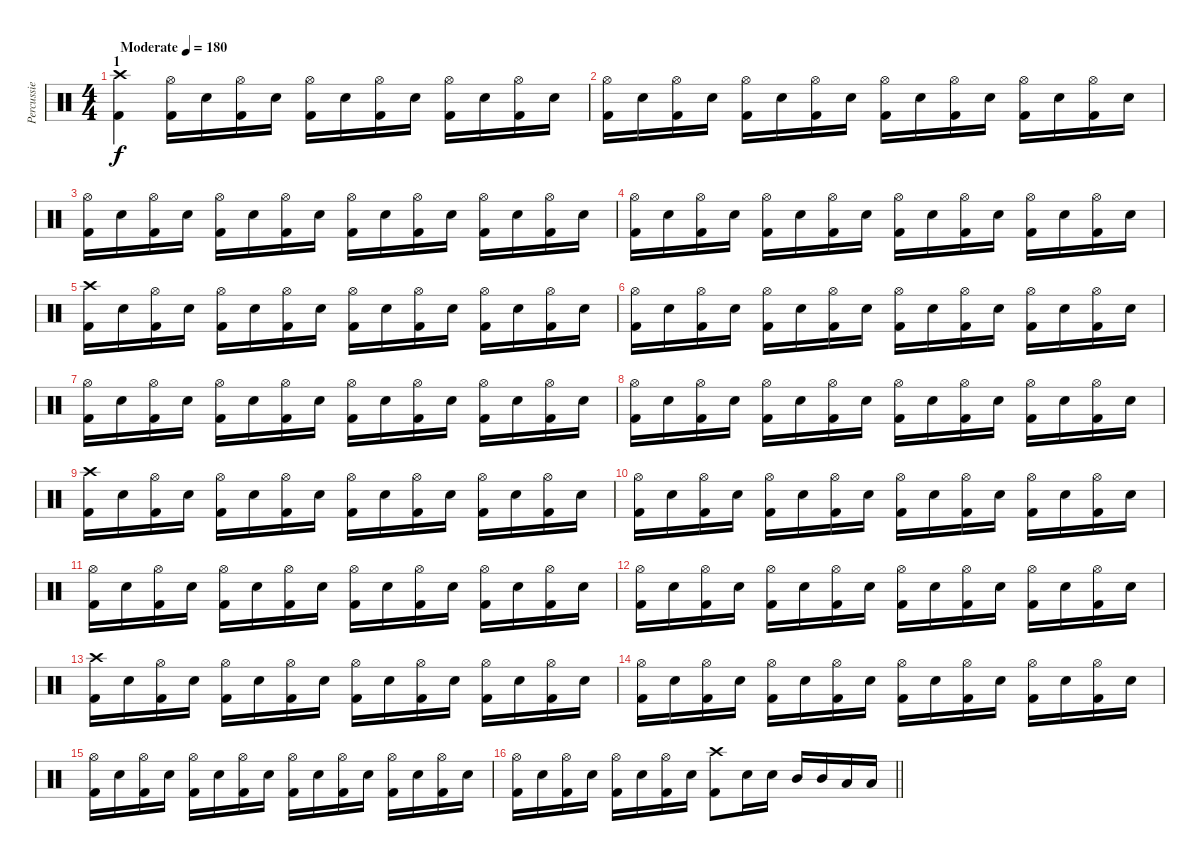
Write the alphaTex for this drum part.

\track ("Percussie" "Percussie") {instrument percussion}
\staff {score}
\articulation defaults
\ts (4 4)
\section ("" "1")
\tempo (180 "Moderate")
\clef neutral
\ks c
("Crash high (hit)" "Kick (hit) 2").4{dy f} ("Hi-Hat (open)" "Kick (hit) 2").16 "Snare (hit) 2".16 ("Hi-Hat (open)" "Kick (hit) 2").16 "Snare (hit) 2".16 ("Hi-Hat (open)" "Kick (hit) 2").16 "Snare (hit) 2".16 ("Hi-Hat (open)" "Kick (hit) 2").16 "Snare (hit) 2".16 ("Hi-Hat (open)" "Kick (hit) 2").16 "Snare (hit) 2".16 ("Hi-Hat (open)" "Kick (hit) 2").16 "Snare (hit) 2".16 |
("Hi-Hat (open)" "Kick (hit) 2").16 "Snare (hit) 2".16 ("Hi-Hat (open)" "Kick (hit) 2").16 "Snare (hit) 2".16 ("Hi-Hat (open)" "Kick (hit) 2").16 "Snare (hit) 2".16 ("Hi-Hat (open)" "Kick (hit) 2").16 "Snare (hit) 2".16 ("Hi-Hat (open)" "Kick (hit) 2").16 "Snare (hit) 2".16 ("Hi-Hat (open)" "Kick (hit) 2").16 "Snare (hit) 2".16 ("Hi-Hat (open)" "Kick (hit) 2").16 "Snare (hit) 2".16 ("Hi-Hat (open)" "Kick (hit) 2").16 "Snare (hit) 2".16 |
("Hi-Hat (open)" "Kick (hit) 2").16 "Snare (hit) 2".16 ("Hi-Hat (open)" "Kick (hit) 2").16 "Snare (hit) 2".16 ("Hi-Hat (open)" "Kick (hit) 2").16 "Snare (hit) 2".16 ("Hi-Hat (open)" "Kick (hit) 2").16 "Snare (hit) 2".16 ("Hi-Hat (open)" "Kick (hit) 2").16 "Snare (hit) 2".16 ("Hi-Hat (open)" "Kick (hit) 2").16 "Snare (hit) 2".16 ("Hi-Hat (open)" "Kick (hit) 2").16 "Snare (hit) 2".16 ("Hi-Hat (open)" "Kick (hit) 2").16 "Snare (hit) 2".16 |
("Hi-Hat (open)" "Kick (hit) 2").16 "Snare (hit) 2".16 ("Hi-Hat (open)" "Kick (hit) 2").16 "Snare (hit) 2".16 ("Hi-Hat (open)" "Kick (hit) 2").16 "Snare (hit) 2".16 ("Hi-Hat (open)" "Kick (hit) 2").16 "Snare (hit) 2".16 ("Hi-Hat (open)" "Kick (hit) 2").16 "Snare (hit) 2".16 ("Hi-Hat (open)" "Kick (hit) 2").16 "Snare (hit) 2".16 ("Hi-Hat (open)" "Kick (hit) 2").16 "Snare (hit) 2".16 ("Hi-Hat (open)" "Kick (hit) 2").16 "Snare (hit) 2".16 |
("Crash high (hit)" "Kick (hit) 2").16 "Snare (hit) 2".16 ("Hi-Hat (open)" "Kick (hit) 2").16 "Snare (hit) 2".16 ("Hi-Hat (open)" "Kick (hit) 2").16 "Snare (hit) 2".16 ("Hi-Hat (open)" "Kick (hit) 2").16 "Snare (hit) 2".16 ("Hi-Hat (open)" "Kick (hit) 2").16 "Snare (hit) 2".16 ("Hi-Hat (open)" "Kick (hit) 2").16 "Snare (hit) 2".16 ("Hi-Hat (open)" "Kick (hit) 2").16 "Snare (hit) 2".16 ("Hi-Hat (open)" "Kick (hit) 2").16 "Snare (hit) 2".16 |
("Hi-Hat (open)" "Kick (hit) 2").16 "Snare (hit) 2".16 ("Hi-Hat (open)" "Kick (hit) 2").16 "Snare (hit) 2".16 ("Hi-Hat (open)" "Kick (hit) 2").16 "Snare (hit) 2".16 ("Hi-Hat (open)" "Kick (hit) 2").16 "Snare (hit) 2".16 ("Hi-Hat (open)" "Kick (hit) 2").16 "Snare (hit) 2".16 ("Hi-Hat (open)" "Kick (hit) 2").16 "Snare (hit) 2".16 ("Hi-Hat (open)" "Kick (hit) 2").16 "Snare (hit) 2".16 ("Hi-Hat (open)" "Kick (hit) 2").16 "Snare (hit) 2".16 |
("Hi-Hat (open)" "Kick (hit) 2").16 "Snare (hit) 2".16 ("Hi-Hat (open)" "Kick (hit) 2").16 "Snare (hit) 2".16 ("Hi-Hat (open)" "Kick (hit) 2").16 "Snare (hit) 2".16 ("Hi-Hat (open)" "Kick (hit) 2").16 "Snare (hit) 2".16 ("Hi-Hat (open)" "Kick (hit) 2").16 "Snare (hit) 2".16 ("Hi-Hat (open)" "Kick (hit) 2").16 "Snare (hit) 2".16 ("Hi-Hat (open)" "Kick (hit) 2").16 "Snare (hit) 2".16 ("Hi-Hat (open)" "Kick (hit) 2").16 "Snare (hit) 2".16 |
("Hi-Hat (open)" "Kick (hit) 2").16 "Snare (hit) 2".16 ("Hi-Hat (open)" "Kick (hit) 2").16 "Snare (hit) 2".16 ("Hi-Hat (open)" "Kick (hit) 2").16 "Snare (hit) 2".16 ("Hi-Hat (open)" "Kick (hit) 2").16 "Snare (hit) 2".16 ("Hi-Hat (open)" "Kick (hit) 2").16 "Snare (hit) 2".16 ("Hi-Hat (open)" "Kick (hit) 2").16 "Snare (hit) 2".16 ("Hi-Hat (open)" "Kick (hit) 2").16 "Snare (hit) 2".16 ("Hi-Hat (open)" "Kick (hit) 2").16 "Snare (hit) 2".16 |
("Crash high (hit)" "Kick (hit) 2").16 "Snare (hit) 2".16 ("Hi-Hat (open)" "Kick (hit) 2").16 "Snare (hit) 2".16 ("Hi-Hat (open)" "Kick (hit) 2").16 "Snare (hit) 2".16 ("Hi-Hat (open)" "Kick (hit) 2").16 "Snare (hit) 2".16 ("Hi-Hat (open)" "Kick (hit) 2").16 "Snare (hit) 2".16 ("Hi-Hat (open)" "Kick (hit) 2").16 "Snare (hit) 2".16 ("Hi-Hat (open)" "Kick (hit) 2").16 "Snare (hit) 2".16 ("Hi-Hat (open)" "Kick (hit) 2").16 "Snare (hit) 2".16 |
("Hi-Hat (open)" "Kick (hit) 2").16 "Snare (hit) 2".16 ("Hi-Hat (open)" "Kick (hit) 2").16 "Snare (hit) 2".16 ("Hi-Hat (open)" "Kick (hit) 2").16 "Snare (hit) 2".16 ("Hi-Hat (open)" "Kick (hit) 2").16 "Snare (hit) 2".16 ("Hi-Hat (open)" "Kick (hit) 2").16 "Snare (hit) 2".16 ("Hi-Hat (open)" "Kick (hit) 2").16 "Snare (hit) 2".16 ("Hi-Hat (open)" "Kick (hit) 2").16 "Snare (hit) 2".16 ("Hi-Hat (open)" "Kick (hit) 2").16 "Snare (hit) 2".16 |
("Hi-Hat (open)" "Kick (hit) 2").16 "Snare (hit) 2".16 ("Hi-Hat (open)" "Kick (hit) 2").16 "Snare (hit) 2".16 ("Hi-Hat (open)" "Kick (hit) 2").16 "Snare (hit) 2".16 ("Hi-Hat (open)" "Kick (hit) 2").16 "Snare (hit) 2".16 ("Hi-Hat (open)" "Kick (hit) 2").16 "Snare (hit) 2".16 ("Hi-Hat (open)" "Kick (hit) 2").16 "Snare (hit) 2".16 ("Hi-Hat (open)" "Kick (hit) 2").16 "Snare (hit) 2".16 ("Hi-Hat (open)" "Kick (hit) 2").16 "Snare (hit) 2".16 |
("Hi-Hat (open)" "Kick (hit) 2").16 "Snare (hit) 2".16 ("Hi-Hat (open)" "Kick (hit) 2").16 "Snare (hit) 2".16 ("Hi-Hat (open)" "Kick (hit) 2").16 "Snare (hit) 2".16 ("Hi-Hat (open)" "Kick (hit) 2").16 "Snare (hit) 2".16 ("Hi-Hat (open)" "Kick (hit) 2").16 "Snare (hit) 2".16 ("Hi-Hat (open)" "Kick (hit) 2").16 "Snare (hit) 2".16 ("Hi-Hat (open)" "Kick (hit) 2").16 "Snare (hit) 2".16 ("Hi-Hat (open)" "Kick (hit) 2").16 "Snare (hit) 2".16 |
("Crash high (hit)" "Kick (hit) 2").16 "Snare (hit) 2".16 ("Hi-Hat (open)" "Kick (hit) 2").16 "Snare (hit) 2".16 ("Hi-Hat (open)" "Kick (hit) 2").16 "Snare (hit) 2".16 ("Hi-Hat (open)" "Kick (hit) 2").16 "Snare (hit) 2".16 ("Hi-Hat (open)" "Kick (hit) 2").16 "Snare (hit) 2".16 ("Hi-Hat (open)" "Kick (hit) 2").16 "Snare (hit) 2".16 ("Hi-Hat (open)" "Kick (hit) 2").16 "Snare (hit) 2".16 ("Hi-Hat (open)" "Kick (hit) 2").16 "Snare (hit) 2".16 |
("Hi-Hat (open)" "Kick (hit) 2").16 "Snare (hit) 2".16 ("Hi-Hat (open)" "Kick (hit) 2").16 "Snare (hit) 2".16 ("Hi-Hat (open)" "Kick (hit) 2").16 "Snare (hit) 2".16 ("Hi-Hat (open)" "Kick (hit) 2").16 "Snare (hit) 2".16 ("Hi-Hat (open)" "Kick (hit) 2").16 "Snare (hit) 2".16 ("Hi-Hat (open)" "Kick (hit) 2").16 "Snare (hit) 2".16 ("Hi-Hat (open)" "Kick (hit) 2").16 "Snare (hit) 2".16 ("Hi-Hat (open)" "Kick (hit) 2").16 "Snare (hit) 2".16 |
("Hi-Hat (open)" "Kick (hit) 2").16 "Snare (hit) 2".16 ("Hi-Hat (open)" "Kick (hit) 2").16 "Snare (hit) 2".16 ("Hi-Hat (open)" "Kick (hit) 2").16 "Snare (hit) 2".16 ("Hi-Hat (open)" "Kick (hit) 2").16 "Snare (hit) 2".16 ("Hi-Hat (open)" "Kick (hit) 2").16 "Snare (hit) 2".16 ("Hi-Hat (open)" "Kick (hit) 2").16 "Snare (hit) 2".16 ("Hi-Hat (open)" "Kick (hit) 2").16 "Snare (hit) 2".16 ("Hi-Hat (open)" "Kick (hit) 2").16 "Snare (hit) 2".16 |
\barLineRight lightlight
("Hi-Hat (open)" "Kick (hit) 2").16 "Snare (hit) 2".16 ("Hi-Hat (open)" "Kick (hit) 2").16 "Snare (hit) 2".16 ("Hi-Hat (open)" "Kick (hit) 2").16 "Snare (hit) 2".16 ("Hi-Hat (open)" "Kick (hit) 2").16 "Snare (hit) 2".16 ("Crash high (hit)" "Kick (hit) 2").8 "Snare (hit) 2".16 "Snare (hit) 2".16 "Mid Tom (hit)".16 "Mid Tom (hit)".16 "Low Tom (hit)".16 "Low Tom (hit)".16
